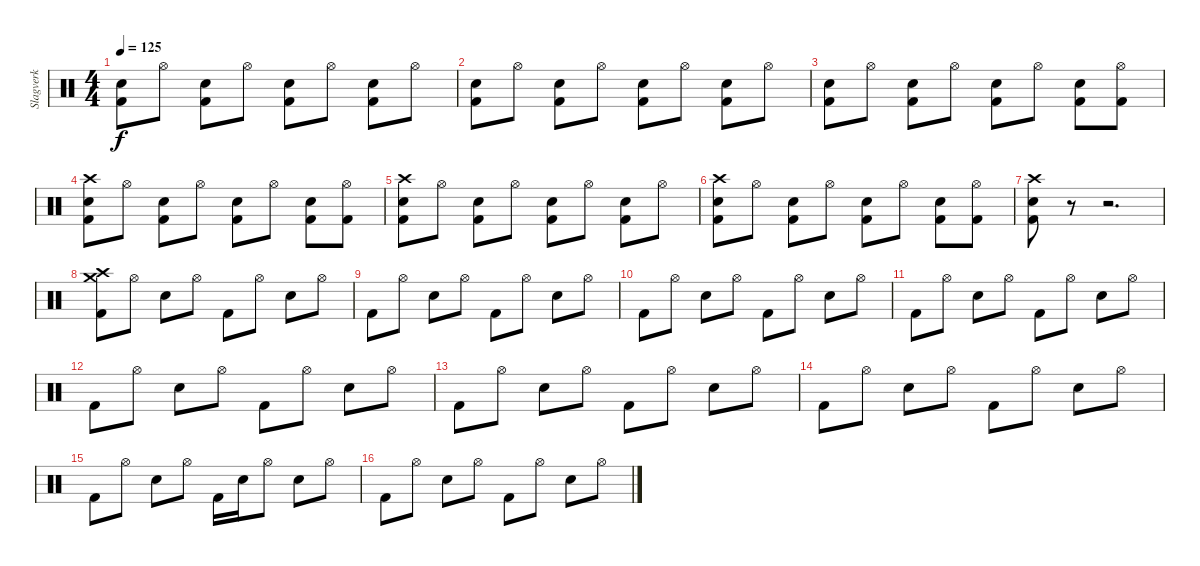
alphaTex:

\track ("Slagverk" "Slagverk") {instrument percussion}
\staff {score}
\articulation defaults
\ts (4 4)
\tempo 125
\clef neutral
\ks c
("Kick (hit) 2" "Electric Snare (hit)").8{dy f} "Hi-Hat (open)".8 ("Kick (hit) 2" "Electric Snare (hit)").8 "Hi-Hat (open)".8 ("Kick (hit) 2" "Electric Snare (hit)").8 "Hi-Hat (open)".8 ("Kick (hit) 2" "Electric Snare (hit)").8 "Hi-Hat (open)".8 |
("Kick (hit) 2" "Electric Snare (hit)").8 "Hi-Hat (open)".8 ("Kick (hit) 2" "Electric Snare (hit)").8 "Hi-Hat (open)".8 ("Kick (hit) 2" "Electric Snare (hit)").8 "Hi-Hat (open)".8 ("Kick (hit) 2" "Electric Snare (hit)").8 "Hi-Hat (open)".8 |
("Kick (hit) 2" "Electric Snare (hit)").8 "Hi-Hat (open)".8 ("Kick (hit) 2" "Electric Snare (hit)").8 "Hi-Hat (open)".8 ("Kick (hit) 2" "Electric Snare (hit)").8 "Hi-Hat (open)".8 ("Kick (hit) 2" "Electric Snare (hit)").8 ("Kick (hit) 2" "Hi-Hat (open)").8 |
("Crash high (hit)" "Kick (hit) 2" "Electric Snare (hit)").8 "Hi-Hat (open)".8 ("Kick (hit) 2" "Electric Snare (hit)").8 "Hi-Hat (open)".8 ("Kick (hit) 2" "Electric Snare (hit)").8 "Hi-Hat (open)".8 ("Kick (hit) 2" "Electric Snare (hit)").8 ("Kick (hit) 2" "Hi-Hat (open)").8 |
("Crash high (hit)" "Kick (hit) 2" "Electric Snare (hit)").8 "Hi-Hat (open)".8 ("Kick (hit) 2" "Electric Snare (hit)").8 "Hi-Hat (open)".8 ("Kick (hit) 2" "Electric Snare (hit)").8 "Hi-Hat (open)".8 ("Kick (hit) 2" "Electric Snare (hit)").8 "Hi-Hat (open)".8 |
("Crash high (hit)" "Kick (hit) 2" "Electric Snare (hit)").8 "Hi-Hat (open)".8 ("Kick (hit) 2" "Electric Snare (hit)").8 "Hi-Hat (open)".8 ("Kick (hit) 2" "Electric Snare (hit)").8 "Hi-Hat (open)".8 ("Kick (hit) 2" "Electric Snare (hit)").8 ("Kick (hit) 2" "Hi-Hat (open)").8 |
("Crash high (hit)" "Electric Snare (hit)" "Kick (hit) 2").8 r.8{volume 4} r.2{d} |
("Crash high (hit)" "Crash medium (hit)" "Kick (hit) 2").8{volume 15} "Hi-Hat (open)".8 "Electric Snare (hit)".8 "Hi-Hat (open)".8 "Kick (hit) 2".8 "Hi-Hat (open)".8 "Electric Snare (hit)".8 "Hi-Hat (open)".8 |
"Kick (hit) 2".8 "Hi-Hat (open)".8 "Electric Snare (hit)".8 "Hi-Hat (open)".8 "Kick (hit) 2".8 "Hi-Hat (open)".8 "Electric Snare (hit)".8 "Hi-Hat (open)".8 |
"Kick (hit) 2".8 "Hi-Hat (open)".8 "Electric Snare (hit)".8 "Hi-Hat (open)".8 "Kick (hit) 2".8 "Hi-Hat (open)".8 "Electric Snare (hit)".8 "Hi-Hat (open)".8 |
"Kick (hit) 2".8 "Hi-Hat (open)".8 "Electric Snare (hit)".8 "Hi-Hat (open)".8 "Kick (hit) 2".8 "Hi-Hat (open)".8 "Electric Snare (hit)".8 "Hi-Hat (open)".8 |
"Kick (hit) 2".8 "Hi-Hat (open)".8 "Electric Snare (hit)".8 "Hi-Hat (open)".8 "Kick (hit) 2".8 "Hi-Hat (open)".8 "Electric Snare (hit)".8 "Hi-Hat (open)".8 |
"Kick (hit) 2".8 "Hi-Hat (open)".8 "Electric Snare (hit)".8 "Hi-Hat (open)".8 "Kick (hit) 2".8 "Hi-Hat (open)".8 "Electric Snare (hit)".8 "Hi-Hat (open)".8 |
"Kick (hit) 2".8 "Hi-Hat (open)".8 "Electric Snare (hit)".8 "Hi-Hat (open)".8 "Kick (hit) 2".8 "Hi-Hat (open)".8 "Electric Snare (hit)".8 "Hi-Hat (open)".8 |
"Kick (hit) 2".8 "Hi-Hat (open)".8 "Electric Snare (hit)".8 "Hi-Hat (open)".8 "Kick (hit) 2".16 "Electric Snare (hit)".16 "Hi-Hat (open)".8 "Electric Snare (hit)".8 "Hi-Hat (open)".8 |
"Kick (hit) 2".8 "Hi-Hat (open)".8 "Electric Snare (hit)".8 "Hi-Hat (open)".8 "Kick (hit) 2".8 "Hi-Hat (open)".8 "Electric Snare (hit)".8 "Hi-Hat (open)".8
